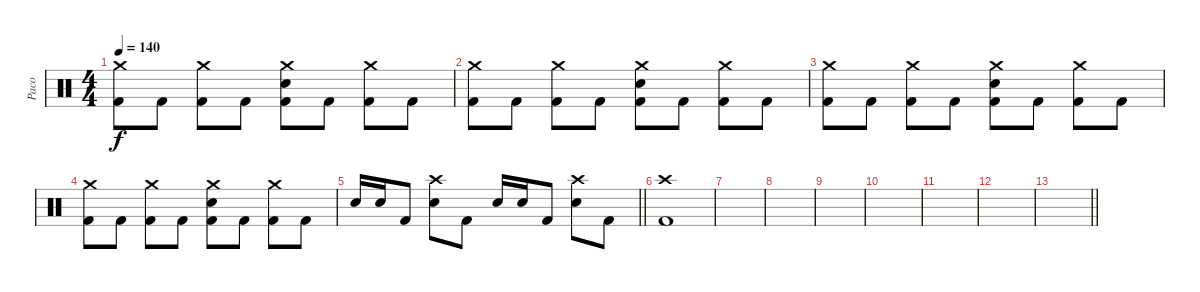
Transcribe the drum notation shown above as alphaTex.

\track ("Paco" "Paco") {instrument percussion}
\staff {score}
\articulation defaults
\ts (4 4)
\tempo 140
\clef neutral
\ks c
("Crash medium (hit)" "Kick (hit) 2").8{dy f} "Kick (hit) 2".8 ("Crash medium (hit)" "Kick (hit) 2").8 "Kick (hit) 2".8 ("Crash medium (hit)" "Electric Snare (hit)" "Kick (hit) 2").8 "Kick (hit) 2".8 ("Crash medium (hit)" "Kick (hit) 2").8 "Kick (hit) 2".8 |
("Crash medium (hit)" "Kick (hit) 2").8 "Kick (hit) 2".8 ("Crash medium (hit)" "Kick (hit) 2").8 "Kick (hit) 2".8 ("Crash medium (hit)" "Electric Snare (hit)" "Kick (hit) 2").8 "Kick (hit) 2".8 ("Crash medium (hit)" "Kick (hit) 2").8 "Kick (hit) 2".8 |
("Crash medium (hit)" "Kick (hit) 2").8 "Kick (hit) 2".8 ("Crash medium (hit)" "Kick (hit) 2").8 "Kick (hit) 2".8 ("Crash medium (hit)" "Electric Snare (hit)" "Kick (hit) 2").8 "Kick (hit) 2".8 ("Crash medium (hit)" "Kick (hit) 2").8 "Kick (hit) 2".8 |
("Crash medium (hit)" "Kick (hit) 2").8 "Kick (hit) 2".8 ("Crash medium (hit)" "Kick (hit) 2").8 "Kick (hit) 2".8 ("Crash medium (hit)" "Electric Snare (hit)" "Kick (hit) 2").8 "Kick (hit) 2".8 ("Crash medium (hit)" "Kick (hit) 2").8 "Kick (hit) 2".8 |
\barLineRight lightlight "Electric Snare (hit)".16 "Electric Snare (hit)".16 "Kick (hit) 2".8
("Crash high (hit)" "Electric Snare (hit)").8 "Kick (hit) 2".8 "Electric Snare (hit)".16 "Electric Snare (hit)".16 "Kick (hit) 2".8 ("Crash high (hit)" "Electric Snare (hit)").8 "Kick (hit) 2".8 |
("Kick (hit) 2" "Crash high (hit)").1 |
|
|
|
|
|
|
\barLineRight lightlight
